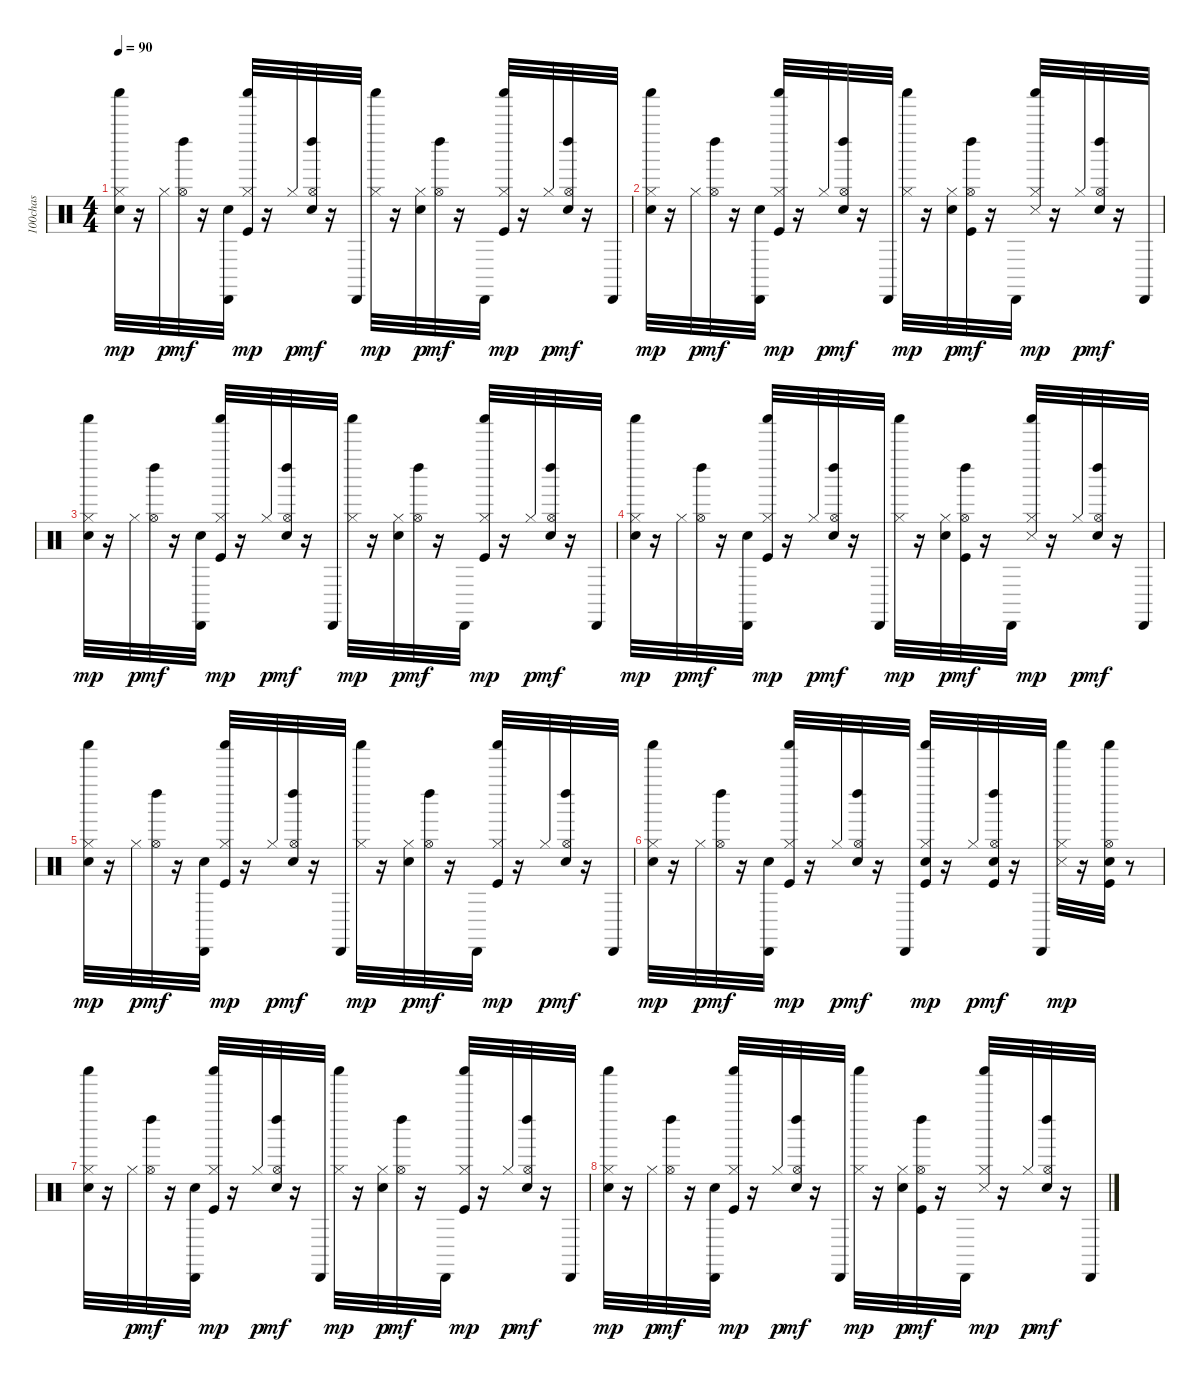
\track ("100chas" "100chas") {instrument percussion}
\staff {score}
\articulation defaults
\ts (4 4)
\tempo 90
\clef neutral
\ks c
("Hand Clap (hit)" "Hi-Hat (closed)" "Shaker (hit)").32{dy mp} r.16 "Hi-Hat (closed)".32{dy p} ("Hi-Hat (open)" "Left Maraca (hit)").32{dy mf} r.16 ("Hand Clap (hit)" "Cabasa (hit)").32 ("Kick (hit)" "Hi-Hat (closed)" "Shaker (hit)").32{dy mp} r.16 "Hi-Hat (closed)".32{dy p} ("Hand Clap (hit)" "Hi-Hat (open)" "Left Maraca (hit)").32{dy mf} r.16 "Cabasa (hit)".32 ("Hi-Hat (closed)" "Shaker (hit)").32{dy mp} r.16 ("Hand Clap (hit)" "Hi-Hat (closed)").32{dy p} ("Hi-Hat (open)" "Left Maraca (hit)").32{dy mf} r.16 "Cabasa (hit)".32 ("Kick (hit)" "Hi-Hat (closed)" "Shaker (hit)").32{dy mp} r.16 "Hi-Hat (closed)".32{dy p} ("Hand Clap (hit)" "Hi-Hat (open)" "Left Maraca (hit)").32{dy mf} r.16 "Cabasa (hit)".32 |
("Hand Clap (hit)" "Hi-Hat (closed)" "Shaker (hit)").32{dy mp} r.16 "Hi-Hat (closed)".32{dy p} ("Hi-Hat (open)" "Left Maraca (hit)").32{dy mf} r.16 ("Hand Clap (hit)" "Cabasa (hit)").32 ("Kick (hit)" "Hi-Hat (closed)" "Shaker (hit)").32{dy mp} r.16 "Hi-Hat (closed)".32{dy p} ("Hand Clap (hit)" "Hi-Hat (open)" "Left Maraca (hit)").32{dy mf} r.16 "Cabasa (hit)".32 ("Hi-Hat (closed)" "Shaker (hit)").32{dy mp} r.16 ("Hand Clap (hit)" "Hi-Hat (closed)").32{dy p} ("Kick (hit)" "Hi-Hat (open)" "Left Maraca (hit)").32{dy mf} r.16 "Cabasa (hit)".32 ("Snare (side stick) 3" "Hi-Hat (closed)" "Shaker (hit)").32{dy mp} r.16 "Hi-Hat (closed)".32{dy p} ("Hand Clap (hit)" "Hi-Hat (open)" "Left Maraca (hit)").32{dy mf} r.16 "Cabasa (hit)".32 |
("Hand Clap (hit)" "Hi-Hat (closed)" "Shaker (hit)").32{dy mp} r.16 "Hi-Hat (closed)".32{dy p} ("Hi-Hat (open)" "Left Maraca (hit)").32{dy mf} r.16 ("Hand Clap (hit)" "Cabasa (hit)").32 ("Kick (hit)" "Hi-Hat (closed)" "Shaker (hit)").32{dy mp} r.16 "Hi-Hat (closed)".32{dy p} ("Hand Clap (hit)" "Hi-Hat (open)" "Left Maraca (hit)").32{dy mf} r.16 "Cabasa (hit)".32 ("Hi-Hat (closed)" "Shaker (hit)").32{dy mp} r.16 ("Hand Clap (hit)" "Hi-Hat (closed)").32{dy p} ("Hi-Hat (open)" "Left Maraca (hit)").32{dy mf} r.16 "Cabasa (hit)".32 ("Kick (hit)" "Hi-Hat (closed)" "Shaker (hit)").32{dy mp} r.16 "Hi-Hat (closed)".32{dy p} ("Hand Clap (hit)" "Hi-Hat (open)" "Left Maraca (hit)").32{dy mf} r.16 "Cabasa (hit)".32 |
("Hand Clap (hit)" "Hi-Hat (closed)" "Shaker (hit)").32{dy mp} r.16 "Hi-Hat (closed)".32{dy p} ("Hi-Hat (open)" "Left Maraca (hit)").32{dy mf} r.16 ("Hand Clap (hit)" "Cabasa (hit)").32 ("Kick (hit)" "Hi-Hat (closed)" "Shaker (hit)").32{dy mp} r.16 "Hi-Hat (closed)".32{dy p} ("Hand Clap (hit)" "Hi-Hat (open)" "Left Maraca (hit)").32{dy mf} r.16 "Cabasa (hit)".32 ("Hi-Hat (closed)" "Shaker (hit)").32{dy mp} r.16 ("Hand Clap (hit)" "Hi-Hat (closed)").32{dy p} ("Kick (hit)" "Hi-Hat (open)" "Left Maraca (hit)").32{dy mf} r.16 "Cabasa (hit)".32 ("Snare (side stick) 3" "Hi-Hat (closed)" "Shaker (hit)").32{dy mp} r.16 "Hi-Hat (closed)".32{dy p} ("Hand Clap (hit)" "Hi-Hat (open)" "Left Maraca (hit)").32{dy mf} r.16 "Cabasa (hit)".32 |
("Hand Clap (hit)" "Hi-Hat (closed)" "Shaker (hit)").32{dy mp} r.16 "Hi-Hat (closed)".32{dy p} ("Hi-Hat (open)" "Left Maraca (hit)").32{dy mf} r.16 ("Hand Clap (hit)" "Cabasa (hit)").32 ("Kick (hit)" "Hi-Hat (closed)" "Shaker (hit)").32{dy mp} r.16 "Hi-Hat (closed)".32{dy p} ("Hand Clap (hit)" "Hi-Hat (open)" "Left Maraca (hit)").32{dy mf} r.16 "Cabasa (hit)".32 ("Hi-Hat (closed)" "Shaker (hit)").32{dy mp} r.16 ("Hand Clap (hit)" "Hi-Hat (closed)").32{dy p} ("Hi-Hat (open)" "Left Maraca (hit)").32{dy mf} r.16 "Cabasa (hit)".32 ("Kick (hit)" "Hi-Hat (closed)" "Shaker (hit)").32{dy mp} r.16 "Hi-Hat (closed)".32{dy p} ("Hand Clap (hit)" "Hi-Hat (open)" "Left Maraca (hit)").32{dy mf} r.16 "Cabasa (hit)".32 |
("Hand Clap (hit)" "Hi-Hat (closed)" "Shaker (hit)").32{dy mp} r.16 "Hi-Hat (closed)".32{dy p} ("Hi-Hat (open)" "Left Maraca (hit)").32{dy mf} r.16 ("Hand Clap (hit)" "Cabasa (hit)").32 ("Kick (hit)" "Hi-Hat (closed)" "Shaker (hit)").32{dy mp} r.16 "Hi-Hat (closed)".32{dy p} ("Hand Clap (hit)" "Hi-Hat (open)" "Left Maraca (hit)").32{dy mf} r.16 "Cabasa (hit)".32 ("Kick (hit)" "Hand Clap (hit)" "Hi-Hat (closed)" "Shaker (hit)").32{dy mp} r.16 "Hi-Hat (closed)".32{dy p} ("Kick (hit)" "Hand Clap (hit)" "Hi-Hat (open)" "Left Maraca (hit)").32{dy mf} r.16 "Cabasa (hit)".32 ("Snare (side stick) 3" "Hi-Hat (closed)" "Shaker (hit)").32{dy mp} r.16 ("Kick (hit)" "Hand Clap (hit)" "Hi-Hat (open)" "Shaker (hit)").32 r.8 |
("Hand Clap (hit)" "Hi-Hat (closed)" "Shaker (hit)").32 r.16 "Hi-Hat (closed)".32{dy p} ("Hi-Hat (open)" "Left Maraca (hit)").32{dy mf} r.16 ("Hand Clap (hit)" "Cabasa (hit)").32 ("Kick (hit)" "Hi-Hat (closed)" "Shaker (hit)").32{dy mp} r.16 "Hi-Hat (closed)".32{dy p} ("Hand Clap (hit)" "Hi-Hat (open)" "Left Maraca (hit)").32{dy mf} r.16 "Cabasa (hit)".32 ("Hi-Hat (closed)" "Shaker (hit)").32{dy mp} r.16 ("Hand Clap (hit)" "Hi-Hat (closed)").32{dy p} ("Hi-Hat (open)" "Left Maraca (hit)").32{dy mf} r.16 "Cabasa (hit)".32 ("Kick (hit)" "Hi-Hat (closed)" "Shaker (hit)").32{dy mp} r.16 "Hi-Hat (closed)".32{dy p} ("Hand Clap (hit)" "Hi-Hat (open)" "Left Maraca (hit)").32{dy mf} r.16 "Cabasa (hit)".32 |
("Hand Clap (hit)" "Hi-Hat (closed)" "Shaker (hit)").32{dy mp} r.16 "Hi-Hat (closed)".32{dy p} ("Hi-Hat (open)" "Left Maraca (hit)").32{dy mf} r.16 ("Hand Clap (hit)" "Cabasa (hit)").32 ("Kick (hit)" "Hi-Hat (closed)" "Shaker (hit)").32{dy mp} r.16 "Hi-Hat (closed)".32{dy p} ("Hand Clap (hit)" "Hi-Hat (open)" "Left Maraca (hit)").32{dy mf} r.16 "Cabasa (hit)".32 ("Hi-Hat (closed)" "Shaker (hit)").32{dy mp} r.16 ("Hand Clap (hit)" "Hi-Hat (closed)").32{dy p} ("Kick (hit)" "Hi-Hat (open)" "Left Maraca (hit)").32{dy mf} r.16 "Cabasa (hit)".32 ("Snare (side stick) 3" "Hi-Hat (closed)" "Shaker (hit)").32{dy mp} r.16 "Hi-Hat (closed)".32{dy p} ("Hand Clap (hit)" "Hi-Hat (open)" "Left Maraca (hit)").32{dy mf} r.16 "Cabasa (hit)".32
